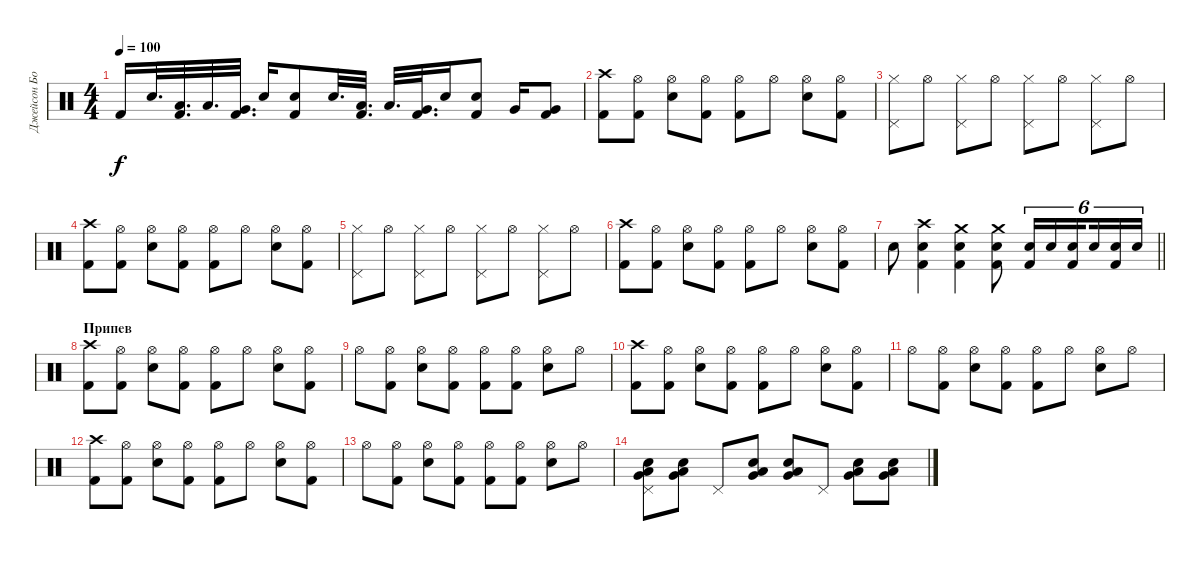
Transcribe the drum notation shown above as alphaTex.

\track ("Джейсон Бонэм" "Джейсон Бо") {instrument percussion}
\staff {score}
\articulation defaults
\ts (4 4)
\tempo 100
\clef neutral
\ks c "Kick (hit) 2".16{dy f} "Snare (hit) 2".32{d}
("Low Tom (hit)" "Kick (hit) 2").32{d} "Low Tom (hit)".32{d} ("Very Low Tom (hit)" "Kick (hit) 2").32{d} "Snare (hit) 2".16 ("Snare (hit) 2" "Kick (hit) 2").8 "Snare (hit) 2".32{d} ("Low Tom (hit)" "Kick (hit) 2").32{d} "Low Tom (hit)".32{d} ("Very Low Tom (hit)" "Kick (hit) 2").32{d} "Snare (hit) 2".16 ("Snare (hit) 2" "Kick (hit) 2").8 "Very Low Tom (hit)".16 ("Very Low Tom (hit)" "Kick (hit) 2").8 |
("Crash high (hit)" "Kick (hit) 2").8 ("Hi-Hat (open)" "Kick (hit) 2").8 ("Hi-Hat (open)" "Snare (hit) 2").8 ("Hi-Hat (open)" "Kick (hit) 2").8 ("Hi-Hat (open)" "Kick (hit) 2").8 "Hi-Hat (open)".8 ("Hi-Hat (open)" "Snare (hit) 2").8 ("Hi-Hat (open)" "Kick (hit) 2").8 |
("Hi-Hat (closed)" "Pedal Hi-Hat (hit)").8 "Hi-Hat (open)".8 ("Hi-Hat (closed)" "Pedal Hi-Hat (hit)").8 "Hi-Hat (open)".8 ("Hi-Hat (closed)" "Pedal Hi-Hat (hit)").8 "Hi-Hat (open)".8 ("Hi-Hat (closed)" "Pedal Hi-Hat (hit)").8 "Hi-Hat (open)".8 |
("Crash high (hit)" "Kick (hit) 2").8 ("Hi-Hat (open)" "Kick (hit) 2").8 ("Hi-Hat (open)" "Snare (hit) 2").8 ("Hi-Hat (open)" "Kick (hit) 2").8 ("Hi-Hat (open)" "Kick (hit) 2").8 "Hi-Hat (open)".8 ("Hi-Hat (open)" "Snare (hit) 2").8 ("Hi-Hat (open)" "Kick (hit) 2").8 |
("Hi-Hat (closed)" "Pedal Hi-Hat (hit)").8 "Hi-Hat (open)".8 ("Hi-Hat (closed)" "Pedal Hi-Hat (hit)").8 "Hi-Hat (open)".8 ("Hi-Hat (closed)" "Pedal Hi-Hat (hit)").8 "Hi-Hat (open)".8 ("Hi-Hat (closed)" "Pedal Hi-Hat (hit)").8 "Hi-Hat (open)".8 |
("Crash high (hit)" "Kick (hit) 2").8 ("Hi-Hat (open)" "Kick (hit) 2").8 ("Hi-Hat (open)" "Snare (hit) 2").8 ("Hi-Hat (open)" "Kick (hit) 2").8 ("Hi-Hat (open)" "Kick (hit) 2").8 "Hi-Hat (open)".8 ("Hi-Hat (open)" "Snare (hit) 2").8 ("Hi-Hat (open)" "Kick (hit) 2").8 |
\barLineRight lightlight "Snare (hit) 2".8
("Crash high (hit)" "Snare (hit) 2" "Kick (hit) 2").4 ("Crash medium (hit)" "Snare (hit) 2" "Kick (hit) 2").4 ("Crash medium (hit)" "Snare (hit) 2" "Kick (hit) 2").8 ("Snare (hit) 2" "Kick (hit) 2").16{tu (6 4)} "Snare (hit) 2".16{tu (6 4)} ("Snare (hit) 2" "Kick (hit) 2").16{tu (6 4) beam splitsecondary} "Snare (hit) 2".16{tu (6 4)} ("Snare (hit) 2" "Kick (hit) 2").16{tu (6 4)} "Snare (hit) 2".16{tu (6 4)} |
\section ("" "Припев")
("Crash high (hit)" "Kick (hit) 2").8 ("Hi-Hat (open)" "Kick (hit) 2").8 ("Hi-Hat (open)" "Snare (hit) 2").8 ("Hi-Hat (open)" "Kick (hit) 2").8 ("Hi-Hat (open)" "Kick (hit) 2").8 "Hi-Hat (open)".8 ("Hi-Hat (open)" "Snare (hit) 2").8 ("Hi-Hat (open)" "Kick (hit) 2").8 |
"Hi-Hat (open)".8 ("Hi-Hat (open)" "Kick (hit) 2").8 ("Hi-Hat (open)" "Snare (hit) 2").8 ("Hi-Hat (open)" "Kick (hit) 2").8 ("Hi-Hat (open)" "Kick (hit) 2").8 ("Hi-Hat (open)" "Kick (hit) 2").8 ("Hi-Hat (open)" "Snare (hit) 2").8 "Hi-Hat (open)".8 |
("Crash high (hit)" "Kick (hit) 2").8 ("Hi-Hat (open)" "Kick (hit) 2").8 ("Hi-Hat (open)" "Snare (hit) 2").8 ("Hi-Hat (open)" "Kick (hit) 2").8 ("Hi-Hat (open)" "Kick (hit) 2").8 "Hi-Hat (open)".8 ("Hi-Hat (open)" "Snare (hit) 2").8 ("Hi-Hat (open)" "Kick (hit) 2").8 |
"Hi-Hat (open)".8 ("Hi-Hat (open)" "Kick (hit) 2").8 ("Hi-Hat (open)" "Snare (hit) 2").8 ("Hi-Hat (open)" "Kick (hit) 2").8 ("Hi-Hat (open)" "Kick (hit) 2").8 "Hi-Hat (open)".8 ("Hi-Hat (open)" "Snare (hit) 2").8 "Hi-Hat (open)".8 |
("Crash high (hit)" "Kick (hit) 2").8 ("Hi-Hat (open)" "Kick (hit) 2").8 ("Hi-Hat (open)" "Snare (hit) 2").8 ("Hi-Hat (open)" "Kick (hit) 2").8 ("Hi-Hat (open)" "Kick (hit) 2").8 "Hi-Hat (open)".8 ("Hi-Hat (open)" "Snare (hit) 2").8 ("Hi-Hat (open)" "Kick (hit) 2").8 |
"Hi-Hat (open)".8 ("Hi-Hat (open)" "Kick (hit) 2").8 ("Hi-Hat (open)" "Snare (hit) 2").8 ("Hi-Hat (open)" "Kick (hit) 2").8 ("Hi-Hat (open)" "Kick (hit) 2").8 ("Hi-Hat (open)" "Kick (hit) 2").8 ("Hi-Hat (open)" "Snare (hit) 2").8 "Hi-Hat (open)".8 |
("Very Low Tom (hit)" "Low Floor Tom (hit)" "Snare (hit) 2" "Pedal Hi-Hat (hit)").8 ("Very Low Tom (hit)" "Low Floor Tom (hit)" "Snare (hit) 2").8 "Pedal Hi-Hat (hit)".8 ("Very Low Tom (hit)" "Low Floor Tom (hit)" "Snare (hit) 2").8 ("Very Low Tom (hit)" "Low Floor Tom (hit)" "Snare (hit) 2").8 "Pedal Hi-Hat (hit)".8 ("Very Low Tom (hit)" "Low Floor Tom (hit)" "Snare (hit) 2").8 ("Very Low Tom (hit)" "Low Floor Tom (hit)" "Snare (hit) 2").8
